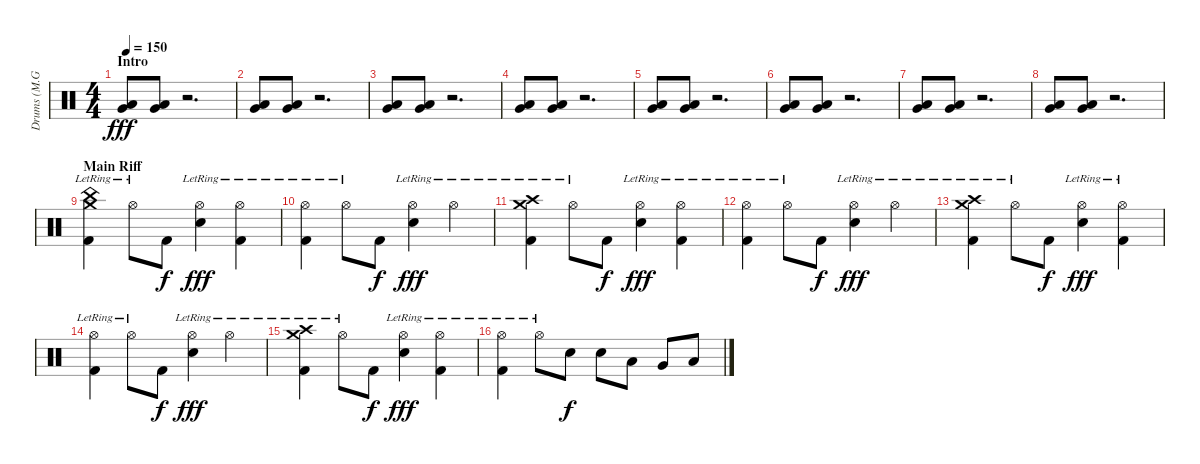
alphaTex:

\track ("Drums (M.Großkopf)" "Drums (M.G") {instrument percussion}
\staff {score}
\articulation defaults
\ts (4 4)
\section ("" "Intro")
\tempo 150
\clef neutral
\ks c
("Low Floor Tom (hit)" "Very Low Tom (hit)").8{dy fff} ("Low Floor Tom (hit)" "Very Low Tom (hit)").8 r.2{d} |
("Low Floor Tom (hit)" "Very Low Tom (hit)").8 ("Low Floor Tom (hit)" "Very Low Tom (hit)").8 r.2{d} |
("Low Floor Tom (hit)" "Very Low Tom (hit)").8 ("Low Floor Tom (hit)" "Very Low Tom (hit)").8 r.2{d} |
("Low Floor Tom (hit)" "Very Low Tom (hit)").8 ("Low Floor Tom (hit)" "Very Low Tom (hit)").8 r.2{d} |
("Low Floor Tom (hit)" "Very Low Tom (hit)").8 ("Low Floor Tom (hit)" "Very Low Tom (hit)").8 r.2{d} |
("Low Floor Tom (hit)" "Very Low Tom (hit)").8 ("Low Floor Tom (hit)" "Very Low Tom (hit)").8 r.2{d} |
("Low Floor Tom (hit)" "Very Low Tom (hit)").8 ("Low Floor Tom (hit)" "Very Low Tom (hit)").8 r.2{d} |
("Low Floor Tom (hit)" "Very Low Tom (hit)").8 ("Low Floor Tom (hit)" "Very Low Tom (hit)").8 r.2{d} |
\section ("" "Main Riff")
("Crash medium (hit)"{lr} "Kick (hit) 2" "China (hit)"{lr}).4 "Hi-Hat (open)"{lr}.8 "Kick (hit) 2".8{dy f} ("Hi-Hat (open)"{lr} "Electric Snare (hit)").4{dy fff} ("Hi-Hat (open)"{lr} "Kick (hit) 2").4 |
("Hi-Hat (open)"{lr} "Kick (hit) 2").4 "Hi-Hat (open)"{lr}.8 "Kick (hit) 2".8{dy f} ("Hi-Hat (open)"{lr} "Electric Snare (hit)").4{dy fff} "Hi-Hat (open)"{lr}.4 |
("Crash high (hit)"{lr} "Crash medium (hit)"{lr} "Kick (hit) 2").4 "Hi-Hat (open)"{lr}.8 "Kick (hit) 2".8{dy f} ("Hi-Hat (open)"{lr} "Electric Snare (hit)").4{dy fff} ("Hi-Hat (open)"{lr} "Kick (hit) 2").4 |
("Hi-Hat (open)"{lr} "Kick (hit) 2").4 "Hi-Hat (open)"{lr}.8 "Kick (hit) 2".8{dy f} ("Hi-Hat (open)"{lr} "Electric Snare (hit)").4{dy fff} "Hi-Hat (open)"{lr}.4 |
("Crash high (hit)"{lr} "Crash medium (hit)"{lr} "Kick (hit) 2").4 "Hi-Hat (open)"{lr}.8 "Kick (hit) 2".8{dy f} ("Hi-Hat (open)"{lr} "Electric Snare (hit)").4{dy fff} ("Hi-Hat (open)"{lr} "Kick (hit) 2").4 |
("Hi-Hat (open)"{lr} "Kick (hit) 2").4 "Hi-Hat (open)"{lr}.8 "Kick (hit) 2".8{dy f} ("Hi-Hat (open)"{lr} "Electric Snare (hit)").4{dy fff} "Hi-Hat (open)"{lr}.4 |
("Crash high (hit)"{lr} "Crash medium (hit)"{lr} "Kick (hit) 2").4 "Hi-Hat (open)"{lr}.8 "Kick (hit) 2".8{dy f} ("Hi-Hat (open)"{lr} "Electric Snare (hit)").4{dy fff} ("Hi-Hat (open)"{lr} "Kick (hit) 2").4 |
("Hi-Hat (open)"{lr} "Kick (hit) 2").4 "Hi-Hat (open)"{lr}.8 "Electric Snare (hit)".8{dy f} "Electric Snare (hit)".8 "Low Tom (hit)".8 "Very Low Tom (hit)".8 "Low Floor Tom (hit)".8
